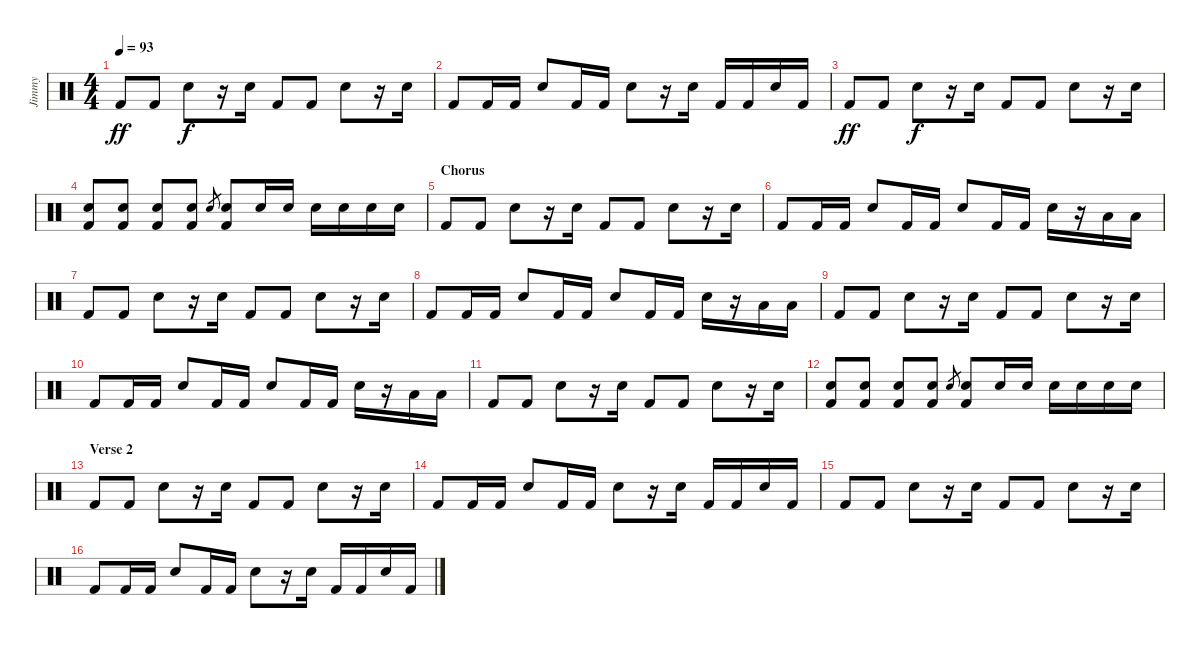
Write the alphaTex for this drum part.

\track ("Jimmy" "Jimmy") {instrument percussion}
\staff {score}
\articulation defaults
\ts (4 4)
\tempo 93
\clef neutral
\ks c "Kick (hit) 2".8{dy ff} "Kick (hit) 2".8 "Snare (hit) 2".8{dy f}
r.16 "Snare (hit) 2".16 "Kick (hit) 2".8 "Kick (hit) 2".8 "Snare (hit) 2".8 r.16 "Snare (hit) 2".16 |
"Kick (hit) 2".8 "Kick (hit) 2".16 "Kick (hit) 2".16 "Snare (hit) 2".8 "Kick (hit) 2".16 "Kick (hit) 2".16 "Snare (hit) 2".8 r.16 "Snare (hit) 2".16 "Kick (hit) 2".16 "Kick (hit) 2".16 "Snare (hit) 2".16 "Kick (hit) 2".16 |
"Kick (hit) 2".8{dy ff} "Kick (hit) 2".8 "Snare (hit) 2".8{dy f} r.16 "Snare (hit) 2".16 "Kick (hit) 2".8 "Kick (hit) 2".8 "Snare (hit) 2".8 r.16 "Snare (hit) 2".16 |
("Snare (hit) 2" "Kick (hit) 2").8 ("Snare (hit) 2" "Kick (hit) 2").8 ("Snare (hit) 2" "Kick (hit) 2").8 ("Snare (hit) 2" "Kick (hit) 2").8 "Snare (hit) 2".8{gr} ("Snare (hit) 2" "Kick (hit) 2").8 "Snare (hit) 2".16 "Snare (hit) 2".16 "Snare (hit) 2".16 "Snare (hit) 2".16 "Snare (hit) 2".16 "Snare (hit) 2".16 |
\section ("" "Chorus")
"Kick (hit) 2".8 "Kick (hit) 2".8 "Snare (hit) 2".8 r.16 "Snare (hit) 2".16 "Kick (hit) 2".8 "Kick (hit) 2".8 "Snare (hit) 2".8 r.16 "Snare (hit) 2".16 |
"Kick (hit) 2".8 "Kick (hit) 2".16 "Kick (hit) 2".16 "Snare (hit) 2".8 "Kick (hit) 2".16 "Kick (hit) 2".16 "Snare (hit) 2".8 "Kick (hit) 2".16 "Kick (hit) 2".16 "Snare (hit) 2".16 r.16 "Low Tom (hit)".16 "Low Floor Tom (hit)".16 |
"Kick (hit) 2".8 "Kick (hit) 2".8 "Snare (hit) 2".8 r.16 "Snare (hit) 2".16 "Kick (hit) 2".8 "Kick (hit) 2".8 "Snare (hit) 2".8 r.16 "Snare (hit) 2".16 |
"Kick (hit) 2".8 "Kick (hit) 2".16 "Kick (hit) 2".16 "Snare (hit) 2".8 "Kick (hit) 2".16 "Kick (hit) 2".16 "Snare (hit) 2".8 "Kick (hit) 2".16 "Kick (hit) 2".16 "Snare (hit) 2".16 r.16 "Low Tom (hit)".16 "Low Floor Tom (hit)".16 |
"Kick (hit) 2".8 "Kick (hit) 2".8 "Snare (hit) 2".8 r.16 "Snare (hit) 2".16 "Kick (hit) 2".8 "Kick (hit) 2".8 "Snare (hit) 2".8 r.16 "Snare (hit) 2".16 |
"Kick (hit) 2".8 "Kick (hit) 2".16 "Kick (hit) 2".16 "Snare (hit) 2".8 "Kick (hit) 2".16 "Kick (hit) 2".16 "Snare (hit) 2".8 "Kick (hit) 2".16 "Kick (hit) 2".16 "Snare (hit) 2".16 r.16 "Low Tom (hit)".16 "Low Floor Tom (hit)".16 |
"Kick (hit) 2".8 "Kick (hit) 2".8 "Snare (hit) 2".8 r.16 "Snare (hit) 2".16 "Kick (hit) 2".8 "Kick (hit) 2".8 "Snare (hit) 2".8 r.16 "Snare (hit) 2".16 |
("Snare (hit) 2" "Kick (hit) 2").8 ("Snare (hit) 2" "Kick (hit) 2").8 ("Snare (hit) 2" "Kick (hit) 2").8 ("Snare (hit) 2" "Kick (hit) 2").8 "Snare (hit) 2".8{gr} ("Snare (hit) 2" "Kick (hit) 2").8 "Snare (hit) 2".16 "Snare (hit) 2".16 "Snare (hit) 2".16 "Snare (hit) 2".16 "Snare (hit) 2".16 "Snare (hit) 2".16 |
\section ("" "Verse 2")
"Kick (hit) 2".8 "Kick (hit) 2".8 "Snare (hit) 2".8 r.16 "Snare (hit) 2".16 "Kick (hit) 2".8 "Kick (hit) 2".8 "Snare (hit) 2".8 r.16 "Snare (hit) 2".16 |
"Kick (hit) 2".8 "Kick (hit) 2".16 "Kick (hit) 2".16 "Snare (hit) 2".8 "Kick (hit) 2".16 "Kick (hit) 2".16 "Snare (hit) 2".8 r.16 "Snare (hit) 2".16 "Kick (hit) 2".16 "Kick (hit) 2".16 "Snare (hit) 2".16 "Kick (hit) 2".16 |
"Kick (hit) 2".8 "Kick (hit) 2".8 "Snare (hit) 2".8 r.16 "Snare (hit) 2".16 "Kick (hit) 2".8 "Kick (hit) 2".8 "Snare (hit) 2".8 r.16 "Snare (hit) 2".16 |
"Kick (hit) 2".8 "Kick (hit) 2".16 "Kick (hit) 2".16 "Snare (hit) 2".8 "Kick (hit) 2".16 "Kick (hit) 2".16 "Snare (hit) 2".8 r.16 "Snare (hit) 2".16 "Kick (hit) 2".16 "Kick (hit) 2".16 "Snare (hit) 2".16 "Kick (hit) 2".16
